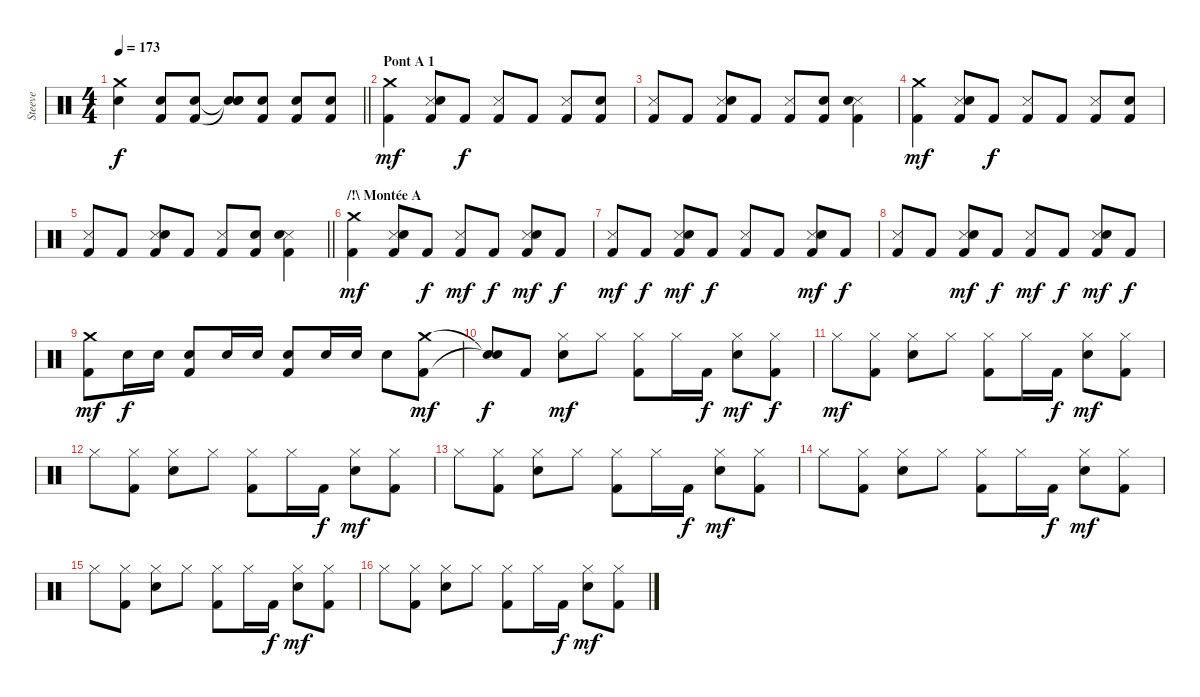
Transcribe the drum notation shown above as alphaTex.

\track ("Steeve" "Steeve") {instrument percussion}
\staff {score}
\articulation defaults
\ts (4 4)
\tempo 173
\clef neutral
\barLineRight lightlight
\ks c
("Crash medium (hit)" "Electric Snare (hit)").4{dy f} ("Electric Snare (hit)" "Kick (hit) 2").8 ("Electric Snare (hit)" "Kick (hit) 2").8 ("Snare (hit)"{t} "Snare (hit)"{t} "Snare (hit)").8 ("Electric Snare (hit)" "Kick (hit) 2").8 ("Electric Snare (hit)" "Kick (hit) 2").8 ("Electric Snare (hit)" "Kick (hit) 2").8 |
\section ("" "Pont A 1")
("Crash medium (hit)" "Kick (hit) 2").4{dy mf} ("Metronome (hit)" "Electric Snare (hit)" "Kick (hit) 2").8 "Kick (hit) 2".8{dy f} ("Metronome (hit)" "Kick (hit) 2").8 "Kick (hit) 2".8 ("Metronome (hit)" "Kick (hit) 2").8 ("Electric Snare (hit)" "Kick (hit) 2").8 |
("Metronome (hit)" "Kick (hit) 2").8 "Kick (hit) 2".8 ("Metronome (hit)" "Electric Snare (hit)" "Kick (hit) 2").8 "Kick (hit) 2".8 ("Metronome (hit)" "Kick (hit) 2").8 ("Electric Snare (hit)" "Kick (hit) 2").8 ("Metronome (hit)" "Electric Snare (hit)" "Kick (hit) 2").4 |
("Crash medium (hit)" "Kick (hit) 2").4{dy mf} ("Metronome (hit)" "Electric Snare (hit)" "Kick (hit) 2").8 "Kick (hit) 2".8{dy f} ("Metronome (hit)" "Kick (hit) 2").8 "Kick (hit) 2".8 ("Metronome (hit)" "Kick (hit) 2").8 ("Electric Snare (hit)" "Kick (hit) 2").8 |
\barLineRight lightlight
("Metronome (hit)" "Kick (hit) 2").8 "Kick (hit) 2".8 ("Metronome (hit)" "Electric Snare (hit)" "Kick (hit) 2").8 "Kick (hit) 2".8 ("Metronome (hit)" "Kick (hit) 2").8 ("Electric Snare (hit)" "Kick (hit) 2").8 ("Metronome (hit)" "Electric Snare (hit)" "Kick (hit) 2").4 |
\section ("" "/!\\ Montée A")
("Crash medium (hit)" "Kick (hit) 2").4{dy mf} ("Metronome (hit)" "Electric Snare (hit)" "Kick (hit) 2").8 "Kick (hit) 2".8{dy f} ("Metronome (hit)" "Kick (hit) 2").8{dy mf} "Kick (hit) 2".8{dy f} ("Metronome (hit)" "Electric Snare (hit)" "Kick (hit) 2").8{dy mf} "Kick (hit) 2".8{dy f} |
("Metronome (hit)" "Kick (hit) 2").8{dy mf} "Kick (hit) 2".8{dy f} ("Metronome (hit)" "Electric Snare (hit)" "Kick (hit) 2").8{dy mf} "Kick (hit) 2".8{dy f} ("Metronome (hit)" "Kick (hit) 2").8 "Kick (hit) 2".8 ("Metronome (hit)" "Electric Snare (hit)" "Kick (hit) 2").8{dy mf} "Kick (hit) 2".8{dy f} |
("Metronome (hit)" "Kick (hit) 2").8 "Kick (hit) 2".8 ("Metronome (hit)" "Electric Snare (hit)" "Kick (hit) 2").8{dy mf} "Kick (hit) 2".8{dy f} ("Metronome (hit)" "Kick (hit) 2").8{dy mf} "Kick (hit) 2".8{dy f} ("Metronome (hit)" "Electric Snare (hit)" "Kick (hit) 2").8{dy mf} "Kick (hit) 2".8{dy f} |
("Crash medium (hit)" "Kick (hit) 2").8{dy mf} "Electric Snare (hit)".16{dy f} "Electric Snare (hit)".16 ("Electric Snare (hit)" "Kick (hit) 2").8 "Electric Snare (hit)".16 "Electric Snare (hit)".16 ("Electric Snare (hit)" "Kick (hit) 2").8 "Electric Snare (hit)".16 "Electric Snare (hit)".16 "Electric Snare (hit)".8 ("Crash medium (hit)" "Kick (hit) 2").8{dy mf} |
("Snare (hit)"{t} "Snare (hit)"{t}).8{dy f} "Kick (hit) 2".8 ("Hi-Hat (closed)" "Electric Snare (hit)").8{dy mf} "Hi-Hat (closed)".8 ("Hi-Hat (closed)" "Kick (hit) 2").8 "Hi-Hat (closed)".16 "Kick (hit) 2".16{dy f} ("Hi-Hat (closed)" "Electric Snare (hit)").8{dy mf} ("Hi-Hat (closed)" "Kick (hit) 2").8{dy f} |
"Hi-Hat (closed)".8{dy mf} ("Hi-Hat (closed)" "Kick (hit) 2").8 ("Hi-Hat (closed)" "Electric Snare (hit)").8 "Hi-Hat (closed)".8 ("Hi-Hat (closed)" "Kick (hit) 2").8 "Hi-Hat (closed)".16 "Kick (hit) 2".16{dy f} ("Hi-Hat (closed)" "Electric Snare (hit)").8{dy mf} ("Hi-Hat (closed)" "Kick (hit) 2").8 |
"Hi-Hat (closed)".8 ("Hi-Hat (closed)" "Kick (hit) 2").8 ("Hi-Hat (closed)" "Electric Snare (hit)").8 "Hi-Hat (closed)".8 ("Hi-Hat (closed)" "Kick (hit) 2").8 "Hi-Hat (closed)".16 "Kick (hit) 2".16{dy f} ("Hi-Hat (closed)" "Electric Snare (hit)").8{dy mf} ("Hi-Hat (closed)" "Kick (hit) 2").8 |
"Hi-Hat (closed)".8 ("Hi-Hat (closed)" "Kick (hit) 2").8 ("Hi-Hat (closed)" "Electric Snare (hit)").8 "Hi-Hat (closed)".8 ("Hi-Hat (closed)" "Kick (hit) 2").8 "Hi-Hat (closed)".16 "Kick (hit) 2".16{dy f} ("Hi-Hat (closed)" "Electric Snare (hit)").8{dy mf} ("Hi-Hat (closed)" "Kick (hit) 2").8 |
"Hi-Hat (closed)".8 ("Hi-Hat (closed)" "Kick (hit) 2").8 ("Hi-Hat (closed)" "Electric Snare (hit)").8 "Hi-Hat (closed)".8 ("Hi-Hat (closed)" "Kick (hit) 2").8 "Hi-Hat (closed)".16 "Kick (hit) 2".16{dy f} ("Hi-Hat (closed)" "Electric Snare (hit)").8{dy mf} ("Hi-Hat (closed)" "Kick (hit) 2").8 |
"Hi-Hat (closed)".8 ("Hi-Hat (closed)" "Kick (hit) 2").8 ("Hi-Hat (closed)" "Electric Snare (hit)").8 "Hi-Hat (closed)".8 ("Hi-Hat (closed)" "Kick (hit) 2").8 "Hi-Hat (closed)".16 "Kick (hit) 2".16{dy f} ("Hi-Hat (closed)" "Electric Snare (hit)").8{dy mf} ("Hi-Hat (closed)" "Kick (hit) 2").8 |
"Hi-Hat (closed)".8 ("Hi-Hat (closed)" "Kick (hit) 2").8 ("Hi-Hat (closed)" "Electric Snare (hit)").8 "Hi-Hat (closed)".8 ("Hi-Hat (closed)" "Kick (hit) 2").8 "Hi-Hat (closed)".16 "Kick (hit) 2".16{dy f} ("Hi-Hat (closed)" "Electric Snare (hit)").8{dy mf} ("Hi-Hat (closed)" "Kick (hit) 2").8
